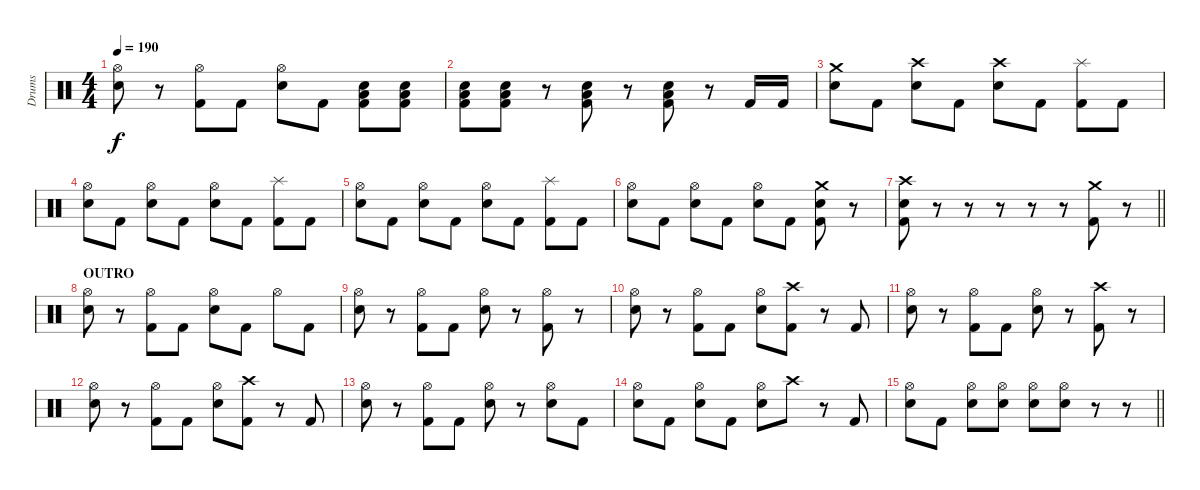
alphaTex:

\track ("Drums" "Drums") {instrument percussion}
\staff {score}
\articulation defaults
\ts (4 4)
\tempo 190
\clef neutral
\ks c
("Snare (hit) 2" "Hi-Hat (open)").8{dy f} r.8 ("Kick (hit) 2" "Hi-Hat (open)").8 "Kick (hit) 2".8 ("Snare (hit) 2" "Hi-Hat (open)").8 "Kick (hit) 2".8 ("Snare (hit) 2" "Low Floor Tom (hit)" "Kick (hit) 2").8 ("Snare (hit) 2" "Low Floor Tom (hit)" "Kick (hit) 2").8 |
("Snare (hit) 2" "Low Floor Tom (hit)" "Kick (hit) 2").8 ("Snare (hit) 2" "Low Floor Tom (hit)" "Kick (hit) 2").8 r.8 ("Snare (hit) 2" "Low Floor Tom (hit)" "Kick (hit) 2").8 r.8 ("Snare (hit) 2" "Low Floor Tom (hit)" "Kick (hit) 2").8 r.8 "Kick (hit) 2".16 "Kick (hit) 2".16 |
("Snare (hit) 2" "Crash medium (hit)").8 "Kick (hit) 2".8 ("Snare (hit) 2" "Crash high (hit)").8 "Kick (hit) 2".8 ("Snare (hit) 2" "Crash high (hit)").8 "Kick (hit) 2".8 ("Kick (hit) 2" "Splash (hit)").8 "Kick (hit) 2".8 |
("Snare (hit) 2" "Hi-Hat (open)").8 "Kick (hit) 2".8 ("Snare (hit) 2" "Hi-Hat (open)").8 "Kick (hit) 2".8 ("Snare (hit) 2" "Hi-Hat (open)").8 "Kick (hit) 2".8 ("Kick (hit) 2" "Splash (hit)").8 "Kick (hit) 2".8 |
("Snare (hit) 2" "Hi-Hat (open)").8 "Kick (hit) 2".8 ("Snare (hit) 2" "Hi-Hat (open)").8 "Kick (hit) 2".8 ("Snare (hit) 2" "Hi-Hat (open)").8 "Kick (hit) 2".8 ("Kick (hit) 2" "Splash (hit)").8 "Kick (hit) 2".8 |
("Snare (hit) 2" "Hi-Hat (open)").8 "Kick (hit) 2".8 ("Snare (hit) 2" "Hi-Hat (open)").8 "Kick (hit) 2".8 ("Snare (hit) 2" "Hi-Hat (open)").8 "Kick (hit) 2".8 ("Kick (hit) 2" "Snare (hit) 2" "Crash medium (hit)").8 r.8 |
\barLineRight lightlight
("Kick (hit) 2" "Snare (hit) 2" "Crash high (hit)").8 r.8 r.8 r.8 r.8 r.8 ("Kick (hit) 2" "Crash medium (hit)").8 r.8 |
\section ("" "OUTRO")
("Snare (hit) 2" "Hi-Hat (open)").8 r.8 ("Kick (hit) 2" "Hi-Hat (open)").8 "Kick (hit) 2".8 ("Snare (hit) 2" "Hi-Hat (open)").8 "Kick (hit) 2".8 "Hi-Hat (open)".8 "Kick (hit) 2".8 |
("Snare (hit) 2" "Hi-Hat (open)").8 r.8 ("Kick (hit) 2" "Hi-Hat (open)").8 "Kick (hit) 2".8 ("Snare (hit) 2" "Hi-Hat (open)").8 r.8 ("Kick (hit) 2" "Hi-Hat (open)").8 r.8 |
("Snare (hit) 2" "Hi-Hat (open)").8 r.8 ("Kick (hit) 2" "Hi-Hat (open)").8 "Kick (hit) 2".8 ("Snare (hit) 2" "Hi-Hat (open)").8 ("Kick (hit) 2" "Crash high (hit)").8 r.8 "Kick (hit) 2".8 |
("Snare (hit) 2" "Hi-Hat (open)").8 r.8 ("Kick (hit) 2" "Hi-Hat (open)").8 "Kick (hit) 2".8 ("Snare (hit) 2" "Hi-Hat (open)").8 r.8 ("Kick (hit) 2" "Crash high (hit)").8 r.8 |
("Snare (hit) 2" "Hi-Hat (open)").8 r.8 ("Kick (hit) 2" "Hi-Hat (open)").8 "Kick (hit) 2".8 ("Snare (hit) 2" "Hi-Hat (open)").8 ("Kick (hit) 2" "Crash high (hit)").8 r.8 "Kick (hit) 2".8 |
("Snare (hit) 2" "Hi-Hat (open)").8 r.8 ("Kick (hit) 2" "Hi-Hat (open)").8 "Kick (hit) 2".8 ("Snare (hit) 2" "Hi-Hat (open)").8 r.8 ("Snare (hit) 2" "Hi-Hat (open)").8 "Kick (hit) 2".8 |
("Snare (hit) 2" "Hi-Hat (open)").8 "Kick (hit) 2".8 ("Snare (hit) 2" "Hi-Hat (open)").8 "Kick (hit) 2".8 ("Snare (hit) 2" "Hi-Hat (open)").8 "Crash high (hit)".8 r.8 "Kick (hit) 2".8 |
\barLineRight lightlight
("Snare (hit) 2" "Hi-Hat (open)").8 "Kick (hit) 2".8 ("Snare (hit) 2" "Hi-Hat (open)").8 ("Snare (hit) 2" "Hi-Hat (open)").8 ("Snare (hit) 2" "Hi-Hat (open)").8 ("Snare (hit) 2" "Hi-Hat (open)").8 r.8{volume 0} r.8
